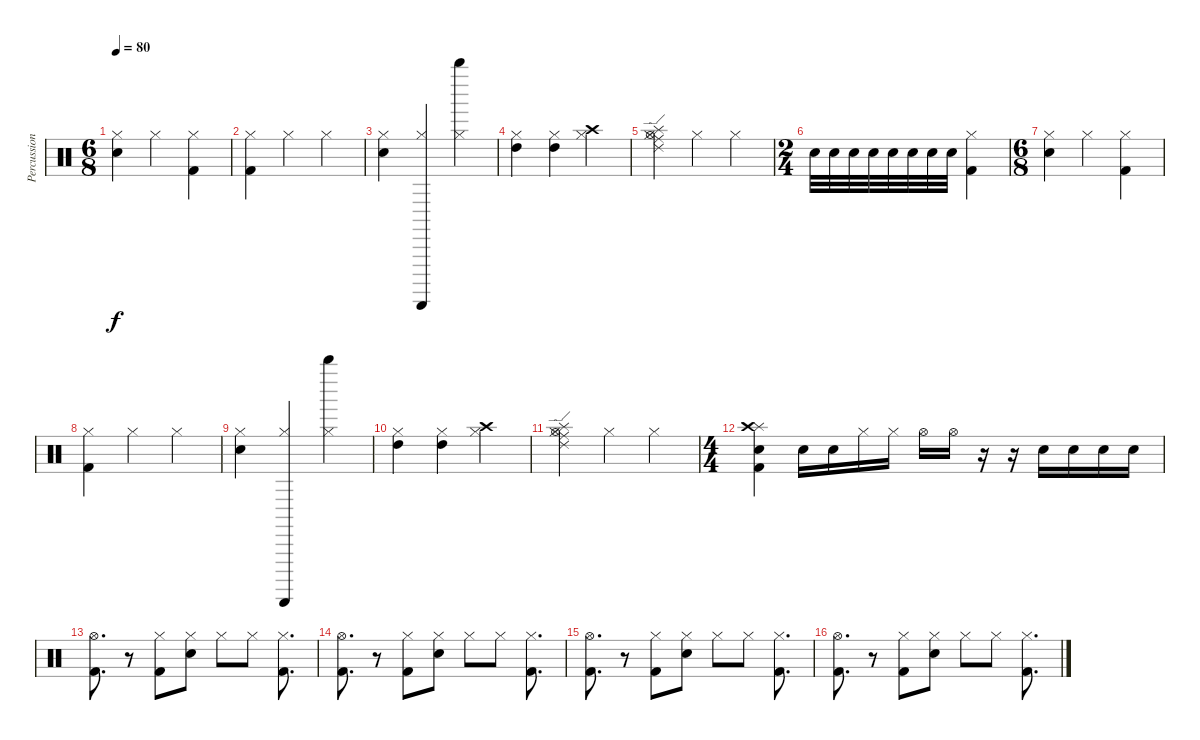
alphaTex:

\track ("Percussion" "Percussion") {instrument percussion}
\staff {score}
\articulation defaults
\ts (6 8)
\tempo 80
\clef neutral
\ks c
("Electric Snare (hit)" "Hi-Hat (closed)").4{dy f} "Hi-Hat (closed)".4 ("Kick (hit) 2" "Hi-Hat (closed)").4 |
("Kick (hit) 2" "Hi-Hat (closed)").4 "Hi-Hat (closed)".4 "Hi-Hat (closed)".4 |
("Snare (hit) 2" "Hi-Hat (closed)").4 ("Guiro (scrap-return)" "Hi-Hat (closed)").4 ("Whistle high (hit)" "Hi-Hat (closed)").4 |
("High Tom (hit)" "Hi-Hat (closed)").4 ("High Tom (hit)" "Hi-Hat (closed)").4 ("Crash high (hit)" "Hi-Hat (closed)").4 |
("Ride (middle)" "Ride (edge) 2" "Hi-Hat (open)" "Hi-Hat (closed)" "Splash (hit)").4 "Hi-Hat (closed)".4 "Hi-Hat (closed)".4 |
\ts (2 4)
"Snare (hit) 2".32 "Snare (hit) 2".32 "Snare (hit) 2".32 "Snare (hit) 2".32 "Snare (hit) 2".32 "Snare (hit) 2".32 "Snare (hit) 2".32 "Snare (hit) 2".32 ("Hi-Hat (closed)" "Kick (hit) 2").4 |
\ts (6 8)
("Electric Snare (hit)" "Hi-Hat (closed)").4 "Hi-Hat (closed)".4 ("Kick (hit) 2" "Hi-Hat (closed)").4 |
("Kick (hit) 2" "Hi-Hat (closed)").4 "Hi-Hat (closed)".4 "Hi-Hat (closed)".4 |
("Snare (hit) 2" "Hi-Hat (closed)").4 ("Guiro (scrap-return)" "Hi-Hat (closed)").4 ("Whistle high (hit)" "Hi-Hat (closed)").4 |
("High Tom (hit)" "Hi-Hat (closed)").4 ("High Tom (hit)" "Hi-Hat (closed)").4 ("Crash high (hit)" "Hi-Hat (closed)").4 |
("Ride (middle)" "Ride (edge) 2" "Hi-Hat (open)" "Hi-Hat (closed)" "Splash (hit)").4 "Hi-Hat (closed)".4 "Hi-Hat (closed)".4 |
\ts (4 4)
("Kick (hit) 2" "Snare (hit) 2" "Splash (hit)" "Crash high (hit)").4 "Snare (hit) 2".16 "Snare (hit) 2".16 "Hi-Hat (closed)".16 "Hi-Hat (closed)".16 "Hi-Hat (open)".16 "Hi-Hat (open)".16 r.16 r.16 "Snare (hit) 2".16 "Snare (hit) 2".16 "Snare (hit) 2".16 "Snare (hit) 2".16 |
("Kick (hit) 2" "Hi-Hat (open)").8{d} r.8 ("Kick (hit) 2" "Hi-Hat (closed)").8 ("Snare (hit) 2" "Hi-Hat (closed)").8 "Hi-Hat (closed)".8 "Hi-Hat (closed)".8 ("Kick (hit) 2" "Hi-Hat (closed)").8{d} |
("Kick (hit) 2" "Hi-Hat (open)").8{d} r.8 ("Kick (hit) 2" "Hi-Hat (closed)").8 ("Snare (hit) 2" "Hi-Hat (closed)").8 "Hi-Hat (closed)".8 "Hi-Hat (closed)".8 ("Kick (hit) 2" "Hi-Hat (closed)").8{d} |
("Kick (hit) 2" "Hi-Hat (open)").8{d} r.8 ("Kick (hit) 2" "Hi-Hat (closed)").8 ("Snare (hit) 2" "Hi-Hat (closed)").8 "Hi-Hat (closed)".8 "Hi-Hat (closed)".8 ("Kick (hit) 2" "Hi-Hat (closed)").8{d} |
("Kick (hit) 2" "Hi-Hat (open)").8{d} r.8 ("Kick (hit) 2" "Hi-Hat (closed)").8 ("Snare (hit) 2" "Hi-Hat (closed)").8 "Hi-Hat (closed)".8 "Hi-Hat (closed)".8 ("Kick (hit) 2" "Hi-Hat (closed)").8{d}
